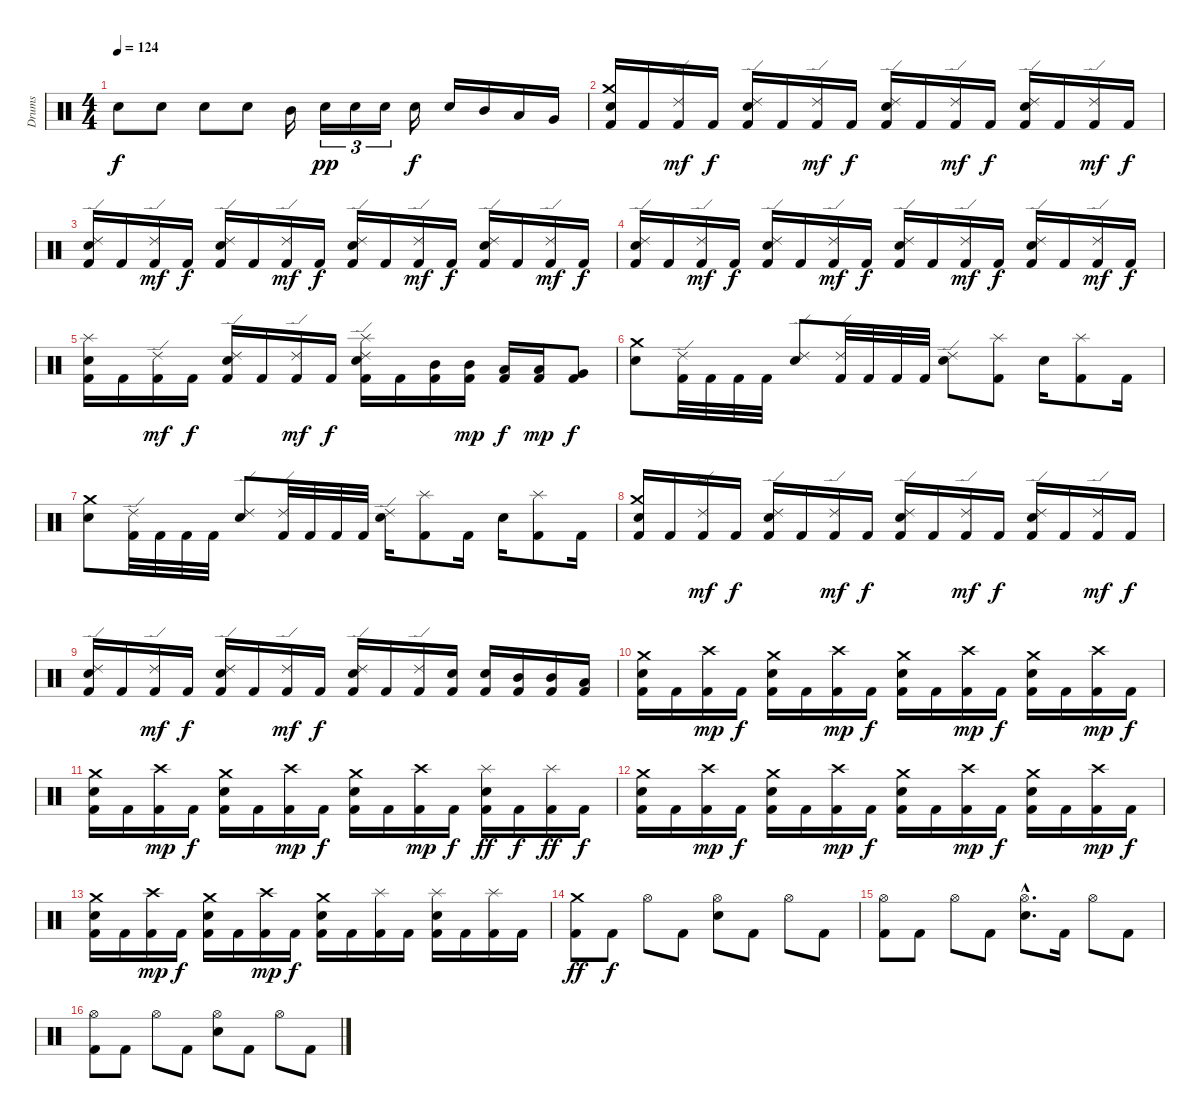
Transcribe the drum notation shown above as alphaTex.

\track ("Drums" "Drums") {instrument percussion}
\staff {score}
\articulation defaults
\ts (4 4)
\tempo 124
\clef neutral
\ks c "Electric Snare (hit)".8{dy f} "Electric Snare (hit)".8 "Electric Snare (hit)".8 "Electric Snare (hit)".8 "Mid Tom (hit)".16 "Electric Snare (hit)".16{tu (3 2) dy pp} "Electric Snare (hit)".16{tu (3 2)} "Electric Snare (hit)".16{tu (3 2)} "Electric Snare (hit)".16{dy f} "Electric Snare (hit)".16 "Mid Tom (hit)".16 "Low Tom (hit)".16 "Very Low Tom (hit)".16
|
("Crash medium (hit)" "Electric Snare (hit)" "Kick (hit) 2").16 "Kick (hit) 2".16 ("Ride (edge) 2" "Kick (hit) 2").16{dy mf} "Kick (hit) 2".16{dy f} ("Ride (edge) 2" "Electric Snare (hit)" "Kick (hit) 2").16 "Kick (hit) 2".16 ("Ride (edge) 2" "Kick (hit) 2").16{dy mf} "Kick (hit) 2".16{dy f} ("Ride (edge) 2" "Electric Snare (hit)" "Kick (hit) 2").16 "Kick (hit) 2".16 ("Ride (edge) 2" "Kick (hit) 2").16{dy mf} "Kick (hit) 2".16{dy f} ("Ride (edge) 2" "Electric Snare (hit)" "Kick (hit) 2").16 "Kick (hit) 2".16 ("Ride (edge) 2" "Kick (hit) 2").16{dy mf} "Kick (hit) 2".16{dy f} |
("Ride (edge) 2" "Electric Snare (hit)" "Kick (hit) 2").16 "Kick (hit) 2".16 ("Ride (edge) 2" "Kick (hit) 2").16{dy mf} "Kick (hit) 2".16{dy f} ("Ride (edge) 2" "Electric Snare (hit)" "Kick (hit) 2").16 "Kick (hit) 2".16 ("Ride (edge) 2" "Kick (hit) 2").16{dy mf} "Kick (hit) 2".16{dy f} ("Ride (edge) 2" "Electric Snare (hit)" "Kick (hit) 2").16 "Kick (hit) 2".16 ("Ride (edge) 2" "Kick (hit) 2").16{dy mf} "Kick (hit) 2".16{dy f} ("Ride (edge) 2" "Electric Snare (hit)" "Kick (hit) 2").16 "Kick (hit) 2".16 ("Ride (edge) 2" "Kick (hit) 2").16{dy mf} "Kick (hit) 2".16{dy f} |
("Ride (edge) 2" "Electric Snare (hit)" "Kick (hit) 2").16 "Kick (hit) 2".16 ("Ride (edge) 2" "Kick (hit) 2").16{dy mf} "Kick (hit) 2".16{dy f} ("Ride (edge) 2" "Electric Snare (hit)" "Kick (hit) 2").16 "Kick (hit) 2".16 ("Ride (edge) 2" "Kick (hit) 2").16{dy mf} "Kick (hit) 2".16{dy f} ("Ride (edge) 2" "Electric Snare (hit)" "Kick (hit) 2").16 "Kick (hit) 2".16 ("Ride (edge) 2" "Kick (hit) 2").16{dy mf} "Kick (hit) 2".16{dy f} ("Ride (edge) 2" "Electric Snare (hit)" "Kick (hit) 2").16 "Kick (hit) 2".16 ("Ride (edge) 2" "Kick (hit) 2").16{dy mf} "Kick (hit) 2".16{dy f} |
("Splash (hit)" "Electric Snare (hit)" "Kick (hit) 2").16 "Kick (hit) 2".16 ("Ride (edge) 2" "Kick (hit) 2").16{dy mf} "Kick (hit) 2".16{dy f} ("Ride (edge) 2" "Electric Snare (hit)" "Kick (hit) 2").16 "Kick (hit) 2".16 ("Ride (edge) 2" "Kick (hit) 2").16{dy mf} "Kick (hit) 2".16{dy f} ("Splash (hit)" "Ride (edge) 2" "Electric Snare (hit)" "Kick (hit) 2").16 "Kick (hit) 2".16 ("Mid Tom (hit)" "Kick (hit) 2").16 ("Mid Tom (hit)" "Kick (hit) 2").16{dy mp} ("Low Tom (hit)" "Kick (hit) 2").16{dy f} ("Low Tom (hit)" "Kick (hit) 2").16{dy mp} ("Very Low Tom (hit)" "Kick (hit) 2").8{dy f} |
("Crash medium (hit)" "Electric Snare (hit)").8 ("Ride (edge) 2" "Kick (hit) 2").32 "Kick (hit) 2".32 "Kick (hit) 2".32 "Kick (hit) 2".32 ("Ride (edge) 2" "Electric Snare (hit)").8 ("Ride (edge) 2" "Kick (hit) 2").32 "Kick (hit) 2".32 "Kick (hit) 2".32 "Kick (hit) 2".32 ("Ride (edge) 2" "Electric Snare (hit)").8 ("Splash (hit)" "Kick (hit) 2").8 "Electric Snare (hit)".16 ("Splash (hit)" "Kick (hit) 2").8 "Kick (hit) 2".16 |
("Crash medium (hit)" "Electric Snare (hit)").8 ("Ride (edge) 2" "Kick (hit) 2").32 "Kick (hit) 2".32 "Kick (hit) 2".32 "Kick (hit) 2".32 ("Ride (edge) 2" "Electric Snare (hit)").8 ("Ride (edge) 2" "Kick (hit) 2").32 "Kick (hit) 2".32 "Kick (hit) 2".32 "Kick (hit) 2".32 ("Ride (edge) 2" "Electric Snare (hit)").16 ("Splash (hit)" "Kick (hit) 2").8 "Kick (hit) 2".16 "Electric Snare (hit)".16 ("Splash (hit)" "Kick (hit) 2").8 "Kick (hit) 2".16 |
("Crash medium (hit)" "Electric Snare (hit)" "Kick (hit) 2").16 "Kick (hit) 2".16 ("Ride (edge) 2" "Kick (hit) 2").16{dy mf} "Kick (hit) 2".16{dy f} ("Ride (edge) 2" "Electric Snare (hit)" "Kick (hit) 2").16 "Kick (hit) 2".16 ("Ride (edge) 2" "Kick (hit) 2").16{dy mf} "Kick (hit) 2".16{dy f} ("Ride (edge) 2" "Electric Snare (hit)" "Kick (hit) 2").16 "Kick (hit) 2".16 ("Ride (edge) 2" "Kick (hit) 2").16{dy mf} "Kick (hit) 2".16{dy f} ("Ride (edge) 2" "Electric Snare (hit)" "Kick (hit) 2").16 "Kick (hit) 2".16 ("Ride (edge) 2" "Kick (hit) 2").16{dy mf} "Kick (hit) 2".16{dy f} |
("Ride (edge) 2" "Electric Snare (hit)" "Kick (hit) 2").16 "Kick (hit) 2".16 ("Ride (edge) 2" "Kick (hit) 2").16{dy mf} "Kick (hit) 2".16{dy f} ("Ride (edge) 2" "Electric Snare (hit)" "Kick (hit) 2").16 "Kick (hit) 2".16 ("Ride (edge) 2" "Kick (hit) 2").16{dy mf} "Kick (hit) 2".16{dy f} ("Ride (edge) 2" "Electric Snare (hit)" "Kick (hit) 2").16 "Kick (hit) 2".16 ("Ride (edge) 2" "Kick (hit) 2").16 ("Electric Snare (hit)" "Kick (hit) 2").16 ("Electric Snare (hit)" "Kick (hit) 2").16 ("Mid Tom (hit)" "Kick (hit) 2").16 ("Mid Tom (hit)" "Kick (hit) 2").16 ("Low Tom (hit)" "Kick (hit) 2").16 |
("Crash medium (hit)" "Electric Snare (hit)" "Kick (hit) 2").16 "Kick (hit) 2".16 ("Crash high (hit)" "Kick (hit) 2").16{dy mp} "Kick (hit) 2".16{dy f} ("Crash medium (hit)" "Electric Snare (hit)" "Kick (hit) 2").16 "Kick (hit) 2".16 ("Crash high (hit)" "Kick (hit) 2").16{dy mp} "Kick (hit) 2".16{dy f} ("Crash medium (hit)" "Electric Snare (hit)" "Kick (hit) 2").16 "Kick (hit) 2".16 ("Crash high (hit)" "Kick (hit) 2").16{dy mp} "Kick (hit) 2".16{dy f} ("Crash medium (hit)" "Electric Snare (hit)" "Kick (hit) 2").16 "Kick (hit) 2".16 ("Crash high (hit)" "Kick (hit) 2").16{dy mp} "Kick (hit) 2".16{dy f} |
("Crash medium (hit)" "Electric Snare (hit)" "Kick (hit) 2").16 "Kick (hit) 2".16 ("Crash high (hit)" "Kick (hit) 2").16{dy mp} "Kick (hit) 2".16{dy f} ("Crash medium (hit)" "Electric Snare (hit)" "Kick (hit) 2").16 "Kick (hit) 2".16 ("Crash high (hit)" "Kick (hit) 2").16{dy mp} "Kick (hit) 2".16{dy f} ("Crash medium (hit)" "Electric Snare (hit)" "Kick (hit) 2").16 "Kick (hit) 2".16 ("Crash high (hit)" "Kick (hit) 2").16{dy mp} "Kick (hit) 2".16{dy f} ("Splash (hit)" "Electric Snare (hit)" "Kick (hit) 2").16{dy ff} "Kick (hit) 2".16{dy f} ("Splash (hit)" "Kick (hit) 2").16{dy ff} "Kick (hit) 2".16{dy f} |
("Crash medium (hit)" "Electric Snare (hit)" "Kick (hit) 2").16 "Kick (hit) 2".16 ("Crash high (hit)" "Kick (hit) 2").16{dy mp} "Kick (hit) 2".16{dy f} ("Crash medium (hit)" "Electric Snare (hit)" "Kick (hit) 2").16 "Kick (hit) 2".16 ("Crash high (hit)" "Kick (hit) 2").16{dy mp} "Kick (hit) 2".16{dy f} ("Crash medium (hit)" "Electric Snare (hit)" "Kick (hit) 2").16 "Kick (hit) 2".16 ("Crash high (hit)" "Kick (hit) 2").16{dy mp} "Kick (hit) 2".16{dy f} ("Crash medium (hit)" "Electric Snare (hit)" "Kick (hit) 2").16 "Kick (hit) 2".16 ("Crash high (hit)" "Kick (hit) 2").16{dy mp} "Kick (hit) 2".16{dy f} |
("Crash medium (hit)" "Electric Snare (hit)" "Kick (hit) 2").16 "Kick (hit) 2".16 ("Crash high (hit)" "Kick (hit) 2").16{dy mp} "Kick (hit) 2".16{dy f} ("Crash medium (hit)" "Electric Snare (hit)" "Kick (hit) 2").16 "Kick (hit) 2".16 ("Crash high (hit)" "Kick (hit) 2").16{dy mp} "Kick (hit) 2".16{dy f} ("Crash medium (hit)" "Electric Snare (hit)" "Kick (hit) 2").16 "Kick (hit) 2".16 ("Splash (hit)" "Kick (hit) 2").16 "Kick (hit) 2".16 ("Splash (hit)" "Electric Snare (hit)" "Kick (hit) 2").16 "Kick (hit) 2".16 ("Splash (hit)" "Kick (hit) 2").16 "Kick (hit) 2".16 |
("Crash medium (hit)" "Kick (hit) 2").8{dy ff} "Kick (hit) 2".8{dy f} "Hi-Hat (open)".8 "Kick (hit) 2".8 ("Hi-Hat (open)" "Electric Snare (hit)").8 "Kick (hit) 2".8 "Hi-Hat (open)".8 "Kick (hit) 2".8 |
("Hi-Hat (open)" "Kick (hit) 2").8 "Kick (hit) 2".8 "Hi-Hat (open)".8 "Kick (hit) 2".8 ("Hi-Hat (open)"{hac} "Electric Snare (hit)"{hac}).8{d} "Kick (hit) 2".16 "Hi-Hat (open)".8 "Kick (hit) 2".8 |
("Hi-Hat (open)" "Kick (hit) 2").8 "Kick (hit) 2".8 "Hi-Hat (open)".8 "Kick (hit) 2".8 ("Hi-Hat (open)" "Electric Snare (hit)").8 "Kick (hit) 2".8 "Hi-Hat (open)".8 "Kick (hit) 2".8
